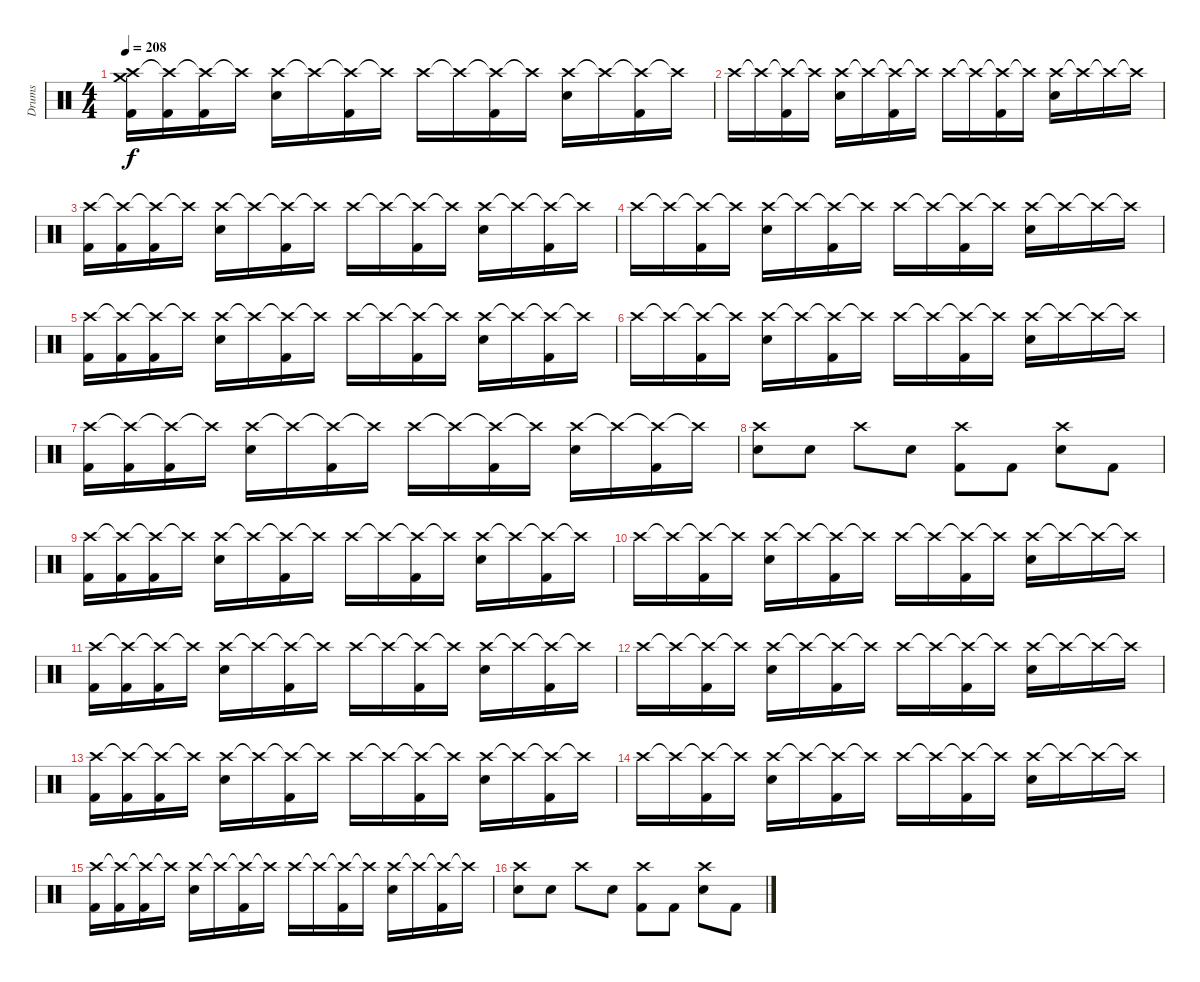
\track ("Drums" "Drums") {instrument percussion}
\staff {score}
\articulation defaults
\ts (4 4)
\tempo 208
\clef neutral
\ks c
("Crash high (hit)" "Crash medium (hit)" "Kick (hit) 2").16{dy f} ("Crash high (hit)"{t} "Kick (hit) 2").16 ("Crash high (hit)"{t} "Kick (hit) 2").16 "Crash high (hit)"{t}.16 ("Crash high (hit)" "Electric Snare (hit)").16 "Crash high (hit)"{t}.16 ("Crash high (hit)"{t} "Kick (hit) 2").16 "Crash high (hit)"{t}.16 "Crash high (hit)".16 "Crash high (hit)"{t}.16 ("Crash high (hit)"{t} "Kick (hit) 2").16 "Crash high (hit)"{t}.16 ("Crash high (hit)" "Electric Snare (hit)").16 "Crash high (hit)"{t}.16 ("Crash high (hit)"{t} "Kick (hit) 2").16 "Crash high (hit)"{t}.16 |
"Crash high (hit)".16 "Crash high (hit)"{t}.16 ("Crash high (hit)"{t} "Kick (hit) 2").16 "Crash high (hit)"{t}.16 ("Crash high (hit)" "Electric Snare (hit)").16 "Crash high (hit)"{t}.16 ("Crash high (hit)"{t} "Kick (hit) 2").16 "Crash high (hit)"{t}.16 "Crash high (hit)".16 "Crash high (hit)"{t}.16 ("Crash high (hit)"{t} "Kick (hit) 2").16 "Crash high (hit)"{t}.16 ("Crash high (hit)" "Electric Snare (hit)").16 "Crash high (hit)"{t}.16 "Crash high (hit)"{t}.16 "Crash high (hit)"{t}.16 |
("Crash high (hit)" "Kick (hit) 2").16 ("Crash high (hit)"{t} "Kick (hit) 2").16 ("Crash high (hit)"{t} "Kick (hit) 2").16 "Crash high (hit)"{t}.16 ("Crash high (hit)" "Electric Snare (hit)").16 "Crash high (hit)"{t}.16 ("Crash high (hit)"{t} "Kick (hit) 2").16 "Crash high (hit)"{t}.16 "Crash high (hit)".16 "Crash high (hit)"{t}.16 ("Crash high (hit)"{t} "Kick (hit) 2").16 "Crash high (hit)"{t}.16 ("Crash high (hit)" "Electric Snare (hit)").16 "Crash high (hit)"{t}.16 ("Crash high (hit)"{t} "Kick (hit) 2").16 "Crash high (hit)"{t}.16 |
"Crash high (hit)".16 "Crash high (hit)"{t}.16 ("Crash high (hit)"{t} "Kick (hit) 2").16 "Crash high (hit)"{t}.16 ("Crash high (hit)" "Electric Snare (hit)").16 "Crash high (hit)"{t}.16 ("Crash high (hit)"{t} "Kick (hit) 2").16 "Crash high (hit)"{t}.16 "Crash high (hit)".16 "Crash high (hit)"{t}.16 ("Crash high (hit)"{t} "Kick (hit) 2").16 "Crash high (hit)"{t}.16 ("Crash high (hit)" "Electric Snare (hit)").16 "Crash high (hit)"{t}.16 "Crash high (hit)"{t}.16 "Crash high (hit)"{t}.16 |
("Crash high (hit)" "Kick (hit) 2").16 ("Crash high (hit)"{t} "Kick (hit) 2").16 ("Crash high (hit)"{t} "Kick (hit) 2").16 "Crash high (hit)"{t}.16 ("Crash high (hit)" "Electric Snare (hit)").16 "Crash high (hit)"{t}.16 ("Crash high (hit)"{t} "Kick (hit) 2").16 "Crash high (hit)"{t}.16 "Crash high (hit)".16 "Crash high (hit)"{t}.16 ("Crash high (hit)"{t} "Kick (hit) 2").16 "Crash high (hit)"{t}.16 ("Crash high (hit)" "Electric Snare (hit)").16 "Crash high (hit)"{t}.16 ("Crash high (hit)"{t} "Kick (hit) 2").16 "Crash high (hit)"{t}.16 |
"Crash high (hit)".16 "Crash high (hit)"{t}.16 ("Crash high (hit)"{t} "Kick (hit) 2").16 "Crash high (hit)"{t}.16 ("Crash high (hit)" "Electric Snare (hit)").16 "Crash high (hit)"{t}.16 ("Crash high (hit)"{t} "Kick (hit) 2").16 "Crash high (hit)"{t}.16 "Crash high (hit)".16 "Crash high (hit)"{t}.16 ("Crash high (hit)"{t} "Kick (hit) 2").16 "Crash high (hit)"{t}.16 ("Crash high (hit)" "Electric Snare (hit)").16 "Crash high (hit)"{t}.16 "Crash high (hit)"{t}.16 "Crash high (hit)"{t}.16 |
("Crash high (hit)" "Kick (hit) 2").16 ("Crash high (hit)"{t} "Kick (hit) 2").16 ("Crash high (hit)"{t} "Kick (hit) 2").16 "Crash high (hit)"{t}.16 ("Crash high (hit)" "Electric Snare (hit)").16 "Crash high (hit)"{t}.16 ("Crash high (hit)"{t} "Kick (hit) 2").16 "Crash high (hit)"{t}.16 "Crash high (hit)".16 "Crash high (hit)"{t}.16 ("Crash high (hit)"{t} "Kick (hit) 2").16 "Crash high (hit)"{t}.16 ("Crash high (hit)" "Electric Snare (hit)").16 "Crash high (hit)"{t}.16 ("Crash high (hit)"{t} "Kick (hit) 2").16 "Crash high (hit)"{t}.16 |
("Crash high (hit)" "Electric Snare (hit)").8 "Electric Snare (hit)".8 "Crash high (hit)".8 "Electric Snare (hit)".8 ("Crash high (hit)" "Kick (hit) 2").8 "Kick (hit) 2".8 ("Crash high (hit)" "Electric Snare (hit)").8 "Kick (hit) 2".8 |
("Crash high (hit)" "Kick (hit) 2").16 ("Crash high (hit)"{t} "Kick (hit) 2").16 ("Crash high (hit)"{t} "Kick (hit) 2").16 "Crash high (hit)"{t}.16 ("Crash high (hit)" "Electric Snare (hit)").16 "Crash high (hit)"{t}.16 ("Crash high (hit)"{t} "Kick (hit) 2").16 "Crash high (hit)"{t}.16 "Crash high (hit)".16 "Crash high (hit)"{t}.16 ("Crash high (hit)"{t} "Kick (hit) 2").16 "Crash high (hit)"{t}.16 ("Crash high (hit)" "Electric Snare (hit)").16 "Crash high (hit)"{t}.16 ("Crash high (hit)"{t} "Kick (hit) 2").16 "Crash high (hit)"{t}.16 |
"Crash high (hit)".16 "Crash high (hit)"{t}.16 ("Crash high (hit)"{t} "Kick (hit) 2").16 "Crash high (hit)"{t}.16 ("Crash high (hit)" "Electric Snare (hit)").16 "Crash high (hit)"{t}.16 ("Crash high (hit)"{t} "Kick (hit) 2").16 "Crash high (hit)"{t}.16 "Crash high (hit)".16 "Crash high (hit)"{t}.16 ("Crash high (hit)"{t} "Kick (hit) 2").16 "Crash high (hit)"{t}.16 ("Crash high (hit)" "Electric Snare (hit)").16 "Crash high (hit)"{t}.16 "Crash high (hit)"{t}.16 "Crash high (hit)"{t}.16 |
("Crash high (hit)" "Kick (hit) 2").16 ("Crash high (hit)"{t} "Kick (hit) 2").16 ("Crash high (hit)"{t} "Kick (hit) 2").16 "Crash high (hit)"{t}.16 ("Crash high (hit)" "Electric Snare (hit)").16 "Crash high (hit)"{t}.16 ("Crash high (hit)"{t} "Kick (hit) 2").16 "Crash high (hit)"{t}.16 "Crash high (hit)".16 "Crash high (hit)"{t}.16 ("Crash high (hit)"{t} "Kick (hit) 2").16 "Crash high (hit)"{t}.16 ("Crash high (hit)" "Electric Snare (hit)").16 "Crash high (hit)"{t}.16 ("Crash high (hit)"{t} "Kick (hit) 2").16 "Crash high (hit)"{t}.16 |
"Crash high (hit)".16 "Crash high (hit)"{t}.16 ("Crash high (hit)"{t} "Kick (hit) 2").16 "Crash high (hit)"{t}.16 ("Crash high (hit)" "Electric Snare (hit)").16 "Crash high (hit)"{t}.16 ("Crash high (hit)"{t} "Kick (hit) 2").16 "Crash high (hit)"{t}.16 "Crash high (hit)".16 "Crash high (hit)"{t}.16 ("Crash high (hit)"{t} "Kick (hit) 2").16 "Crash high (hit)"{t}.16 ("Crash high (hit)" "Electric Snare (hit)").16 "Crash high (hit)"{t}.16 "Crash high (hit)"{t}.16 "Crash high (hit)"{t}.16 |
("Crash high (hit)" "Kick (hit) 2").16 ("Crash high (hit)"{t} "Kick (hit) 2").16 ("Crash high (hit)"{t} "Kick (hit) 2").16 "Crash high (hit)"{t}.16 ("Crash high (hit)" "Electric Snare (hit)").16 "Crash high (hit)"{t}.16 ("Crash high (hit)"{t} "Kick (hit) 2").16 "Crash high (hit)"{t}.16 "Crash high (hit)".16 "Crash high (hit)"{t}.16 ("Crash high (hit)"{t} "Kick (hit) 2").16 "Crash high (hit)"{t}.16 ("Crash high (hit)" "Electric Snare (hit)").16 "Crash high (hit)"{t}.16 ("Crash high (hit)"{t} "Kick (hit) 2").16 "Crash high (hit)"{t}.16 |
"Crash high (hit)".16 "Crash high (hit)"{t}.16 ("Crash high (hit)"{t} "Kick (hit) 2").16 "Crash high (hit)"{t}.16 ("Crash high (hit)" "Electric Snare (hit)").16 "Crash high (hit)"{t}.16 ("Crash high (hit)"{t} "Kick (hit) 2").16 "Crash high (hit)"{t}.16 "Crash high (hit)".16 "Crash high (hit)"{t}.16 ("Crash high (hit)"{t} "Kick (hit) 2").16 "Crash high (hit)"{t}.16 ("Crash high (hit)" "Electric Snare (hit)").16 "Crash high (hit)"{t}.16 "Crash high (hit)"{t}.16 "Crash high (hit)"{t}.16 |
("Crash high (hit)" "Kick (hit) 2").16 ("Crash high (hit)"{t} "Kick (hit) 2").16 ("Crash high (hit)"{t} "Kick (hit) 2").16 "Crash high (hit)"{t}.16 ("Crash high (hit)" "Electric Snare (hit)").16 "Crash high (hit)"{t}.16 ("Crash high (hit)"{t} "Kick (hit) 2").16 "Crash high (hit)"{t}.16 "Crash high (hit)".16 "Crash high (hit)"{t}.16 ("Crash high (hit)"{t} "Kick (hit) 2").16 "Crash high (hit)"{t}.16 ("Crash high (hit)" "Electric Snare (hit)").16 "Crash high (hit)"{t}.16 ("Crash high (hit)"{t} "Kick (hit) 2").16 "Crash high (hit)"{t}.16 |
("Crash high (hit)" "Electric Snare (hit)").8 "Electric Snare (hit)".8 "Crash high (hit)".8 "Electric Snare (hit)".8 ("Crash high (hit)" "Kick (hit) 2").8 "Kick (hit) 2".8 ("Crash high (hit)" "Electric Snare (hit)").8 "Kick (hit) 2".8
